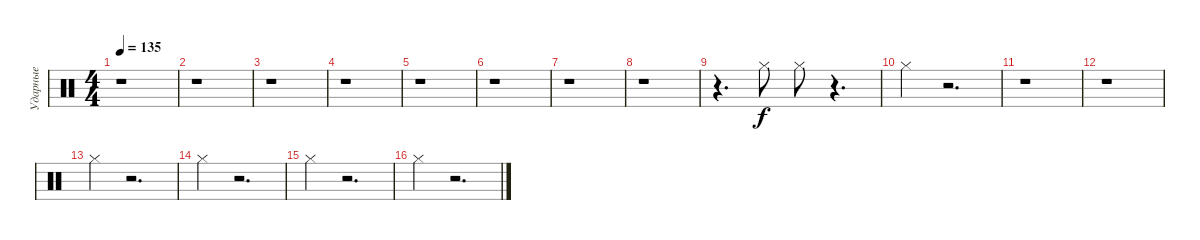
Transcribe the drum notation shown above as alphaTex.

\track ("Ударные" "Ударные") {instrument percussion}
\staff {score}
\articulation defaults
\ts (4 4)
\tempo 135
\clef neutral
\ks c
r.1{dy f} |
r.1 |
r.1 |
r.1 |
r.1 |
r.1 |
r.1 |
r.1 |
r.4{d} "Hi-Hat (closed)".8 "Hi-Hat (closed)".8 r.4{d} |
"Hi-Hat (closed)".4 r.2{d} |
r.1 |
r.1 |
"Hi-Hat (closed)".4 r.2{d} |
"Hi-Hat (closed)".4 r.2{d} |
"Hi-Hat (closed)".4 r.2{d} |
"Hi-Hat (closed)".4 r.2{d}
